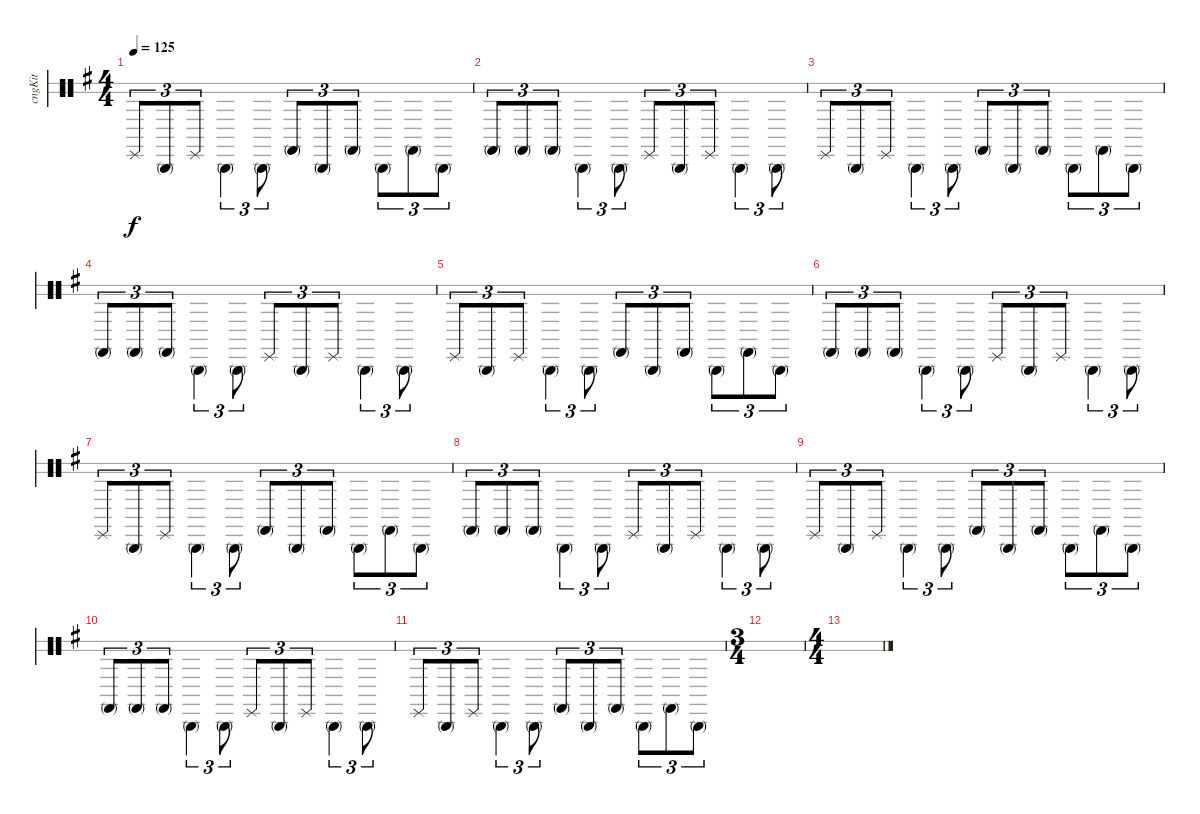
\defaultSystemsLayout 4
\bracketExtendMode groupsimilarinstruments
\otherSystemsTrackNameOrientation horizontal
\track ("Congas" "cngKit") {instrument percussion}
\staff {score 2}
\articulation defaults
\ts (4 4)
\tempo 125
\clef neutral
\scale
0.333333
\ks g "Conga low (slap)"{acc forcenatural}.8{tu (3 2) dy f beam Up} "Conga high (mute)"{acc forcenatural}.8{tu (3 2) beam Up} "Conga low (slap)"{acc forcenatural}.8{tu (3 2) beam Up} "Conga high (mute)"{acc forcenatural}.4{tu (3 2) beam Down} "Conga high (mute)"{acc forcenatural}.8{tu (3 2) beam Down} "Conga low (mute)"{acc forcenatural}.8{tu (3 2) beam Up} "Conga high (mute)"{acc forcenatural}.8{tu (3 2) beam Up} "Conga low (mute)"{acc forcenatural}.8{tu (3 2) beam Up} "Conga high (mute)"{acc forcenatural}.8{tu (3 2) beam Down} "Conga low (mute)"{acc forcenatural}.8{tu (3 2) beam Down} "Conga high (mute)"{acc forcenatural}.8{tu (3 2) beam Down}
|
\scale
0.333333 "Conga low (mute)"{acc forcenatural}.8{tu (3 2) beam Up} "Conga low (mute)"{acc forcenatural}.8{tu (3 2) beam Up} "Conga low (mute)"{acc forcenatural}.8{tu (3 2) beam Up} "Conga high (mute)"{acc forcenatural}.4{tu (3 2) beam Down} "Conga high (mute)"{acc forcenatural}.8{tu (3 2) beam Down} "Conga low (slap)"{acc forcenatural}.8{tu (3 2) beam Up} "Conga high (mute)"{acc forcenatural}.8{tu (3 2) beam Up} "Conga low (slap)"{acc forcenatural}.8{tu (3 2) beam Up} "Conga high (mute)"{acc forcenatural}.4{tu (3 2) beam Down} "Conga high (mute)"{acc forcenatural}.8{tu (3 2) beam Down} |
\scale
0.333333 "Conga low (slap)"{acc forcenatural}.8{tu (3 2) beam Up} "Conga high (mute)"{acc forcenatural}.8{tu (3 2) beam Up} "Conga low (slap)"{acc forcenatural}.8{tu (3 2) beam Up} "Conga high (mute)"{acc forcenatural}.4{tu (3 2) beam Down} "Conga high (mute)"{acc forcenatural}.8{tu (3 2) beam Down} "Conga low (mute)"{acc forcenatural}.8{tu (3 2) beam Up} "Conga high (mute)"{acc forcenatural}.8{tu (3 2) beam Up} "Conga low (mute)"{acc forcenatural}.8{tu (3 2) beam Up} "Conga high (mute)"{acc forcenatural}.8{tu (3 2) beam Down} "Conga low (mute)"{acc forcenatural}.8{tu (3 2) beam Down} "Conga high (mute)"{acc forcenatural}.8{tu (3 2) beam Down} |
\scale
0.333333 "Conga low (mute)"{acc forcenatural}.8{tu (3 2) beam Up} "Conga low (mute)"{acc forcenatural}.8{tu (3 2) beam Up} "Conga low (mute)"{acc forcenatural}.8{tu (3 2) beam Up} "Conga high (mute)"{acc forcenatural}.4{tu (3 2) beam Down} "Conga high (mute)"{acc forcenatural}.8{tu (3 2) beam Down} "Conga low (slap)"{acc forcenatural}.8{tu (3 2) beam Up} "Conga high (mute)"{acc forcenatural}.8{tu (3 2) beam Up} "Conga low (slap)"{acc forcenatural}.8{tu (3 2) beam Up} "Conga high (mute)"{acc forcenatural}.4{tu (3 2) beam Down} "Conga high (mute)"{acc forcenatural}.8{tu (3 2) beam Down} |
\scale
0.333333 "Conga low (slap)"{acc forcenatural}.8{tu (3 2) beam Up} "Conga high (mute)"{acc forcenatural}.8{tu (3 2) beam Up} "Conga low (slap)"{acc forcenatural}.8{tu (3 2) beam Up} "Conga high (mute)"{acc forcenatural}.4{tu (3 2) beam Down} "Conga high (mute)"{acc forcenatural}.8{tu (3 2) beam Down} "Conga low (mute)"{acc forcenatural}.8{tu (3 2) beam Up} "Conga high (mute)"{acc forcenatural}.8{tu (3 2) beam Up} "Conga low (mute)"{acc forcenatural}.8{tu (3 2) beam Up} "Conga high (mute)"{acc forcenatural}.8{tu (3 2) beam Down} "Conga low (mute)"{acc forcenatural}.8{tu (3 2) beam Down} "Conga high (mute)"{acc forcenatural}.8{tu (3 2) beam Down} |
\scale
0.333333 "Conga low (mute)"{acc forcenatural}.8{tu (3 2) beam Up} "Conga low (mute)"{acc forcenatural}.8{tu (3 2) beam Up} "Conga low (mute)"{acc forcenatural}.8{tu (3 2) beam Up} "Conga high (mute)"{acc forcenatural}.4{tu (3 2) beam Down} "Conga high (mute)"{acc forcenatural}.8{tu (3 2) beam Down} "Conga low (slap)"{acc forcenatural}.8{tu (3 2) beam Up} "Conga high (mute)"{acc forcenatural}.8{tu (3 2) beam Up} "Conga low (slap)"{acc forcenatural}.8{tu (3 2) beam Up} "Conga high (mute)"{acc forcenatural}.4{tu (3 2) beam Down} "Conga high (mute)"{acc forcenatural}.8{tu (3 2) beam Down} |
\scale
0.333333 "Conga low (slap)"{acc forcenatural}.8{tu (3 2) beam Up} "Conga high (mute)"{acc forcenatural}.8{tu (3 2) beam Up} "Conga low (slap)"{acc forcenatural}.8{tu (3 2) beam Up} "Conga high (mute)"{acc forcenatural}.4{tu (3 2) beam Down} "Conga high (mute)"{acc forcenatural}.8{tu (3 2) beam Down} "Conga low (mute)"{acc forcenatural}.8{tu (3 2) beam Up} "Conga high (mute)"{acc forcenatural}.8{tu (3 2) beam Up} "Conga low (mute)"{acc forcenatural}.8{tu (3 2) beam Up} "Conga high (mute)"{acc forcenatural}.8{tu (3 2) beam Down} "Conga low (mute)"{acc forcenatural}.8{tu (3 2) beam Down} "Conga high (mute)"{acc forcenatural}.8{tu (3 2) beam Down} |
\scale
0.333333 "Conga low (mute)"{acc forcenatural}.8{tu (3 2) beam Up} "Conga low (mute)"{acc forcenatural}.8{tu (3 2) beam Up} "Conga low (mute)"{acc forcenatural}.8{tu (3 2) beam Up} "Conga high (mute)"{acc forcenatural}.4{tu (3 2) beam Down} "Conga high (mute)"{acc forcenatural}.8{tu (3 2) beam Down} "Conga low (slap)"{acc forcenatural}.8{tu (3 2) beam Up} "Conga high (mute)"{acc forcenatural}.8{tu (3 2) beam Up} "Conga low (slap)"{acc forcenatural}.8{tu (3 2) beam Up} "Conga high (mute)"{acc forcenatural}.4{tu (3 2) beam Down} "Conga high (mute)"{acc forcenatural}.8{tu (3 2) beam Down} |
\scale
0.333333 "Conga low (slap)"{acc forcenatural}.8{tu (3 2) beam Up} "Conga high (mute)"{acc forcenatural}.8{tu (3 2) beam Up} "Conga low (slap)"{acc forcenatural}.8{tu (3 2) beam Up} "Conga high (mute)"{acc forcenatural}.4{tu (3 2) beam Down} "Conga high (mute)"{acc forcenatural}.8{tu (3 2) beam Down} "Conga low (mute)"{acc forcenatural}.8{tu (3 2) beam Up} "Conga high (mute)"{acc forcenatural}.8{tu (3 2) beam Up} "Conga low (mute)"{acc forcenatural}.8{tu (3 2) beam Up} "Conga high (mute)"{acc forcenatural}.8{tu (3 2) beam Down} "Conga low (mute)"{acc forcenatural}.8{tu (3 2) beam Down} "Conga high (mute)"{acc forcenatural}.8{tu (3 2) beam Down} |
\scale
0.262911 "Conga low (mute)"{acc forcenatural}.8{tu (3 2) beam Up} "Conga low (mute)"{acc forcenatural}.8{tu (3 2) beam Up} "Conga low (mute)"{acc forcenatural}.8{tu (3 2) beam Up} "Conga high (mute)"{acc forcenatural}.4{tu (3 2) beam Down} "Conga high (mute)"{acc forcenatural}.8{tu (3 2) beam Down} "Conga low (slap)"{acc forcenatural}.8{tu (3 2) beam Up} "Conga high (mute)"{acc forcenatural}.8{tu (3 2) beam Up} "Conga low (slap)"{acc forcenatural}.8{tu (3 2) beam Up} "Conga high (mute)"{acc forcenatural}.4{tu (3 2) beam Down} "Conga high (mute)"{acc forcenatural}.8{tu (3 2) beam Down} |
\scale
0.262911 "Conga low (slap)"{acc forcenatural}.8{tu (3 2) beam Up} "Conga high (mute)"{acc forcenatural}.8{tu (3 2) beam Up} "Conga low (slap)"{acc forcenatural}.8{tu (3 2) beam Up} "Conga high (mute)"{acc forcenatural}.4{tu (3 2) beam Down} "Conga high (mute)"{acc forcenatural}.8{tu (3 2) beam Down} "Conga low (mute)"{acc forcenatural}.8{tu (3 2) beam Up} "Conga high (mute)"{acc forcenatural}.8{tu (3 2) beam Up} "Conga low (mute)"{acc forcenatural}.8{tu (3 2) beam Up} "Conga high (mute)"{acc forcenatural}.8{tu (3 2) beam Down} "Conga low (mute)"{acc forcenatural}.8{tu (3 2) beam Down} "Conga high (mute)"{acc forcenatural}.8{tu (3 2) beam Down} |
\ts (3 4)
\scale
0.474178 |
\ts (4 4)
\scale
0.474178 |
\scale
0.262911 |
\scale
0.262911 |
\scale
0.333333
